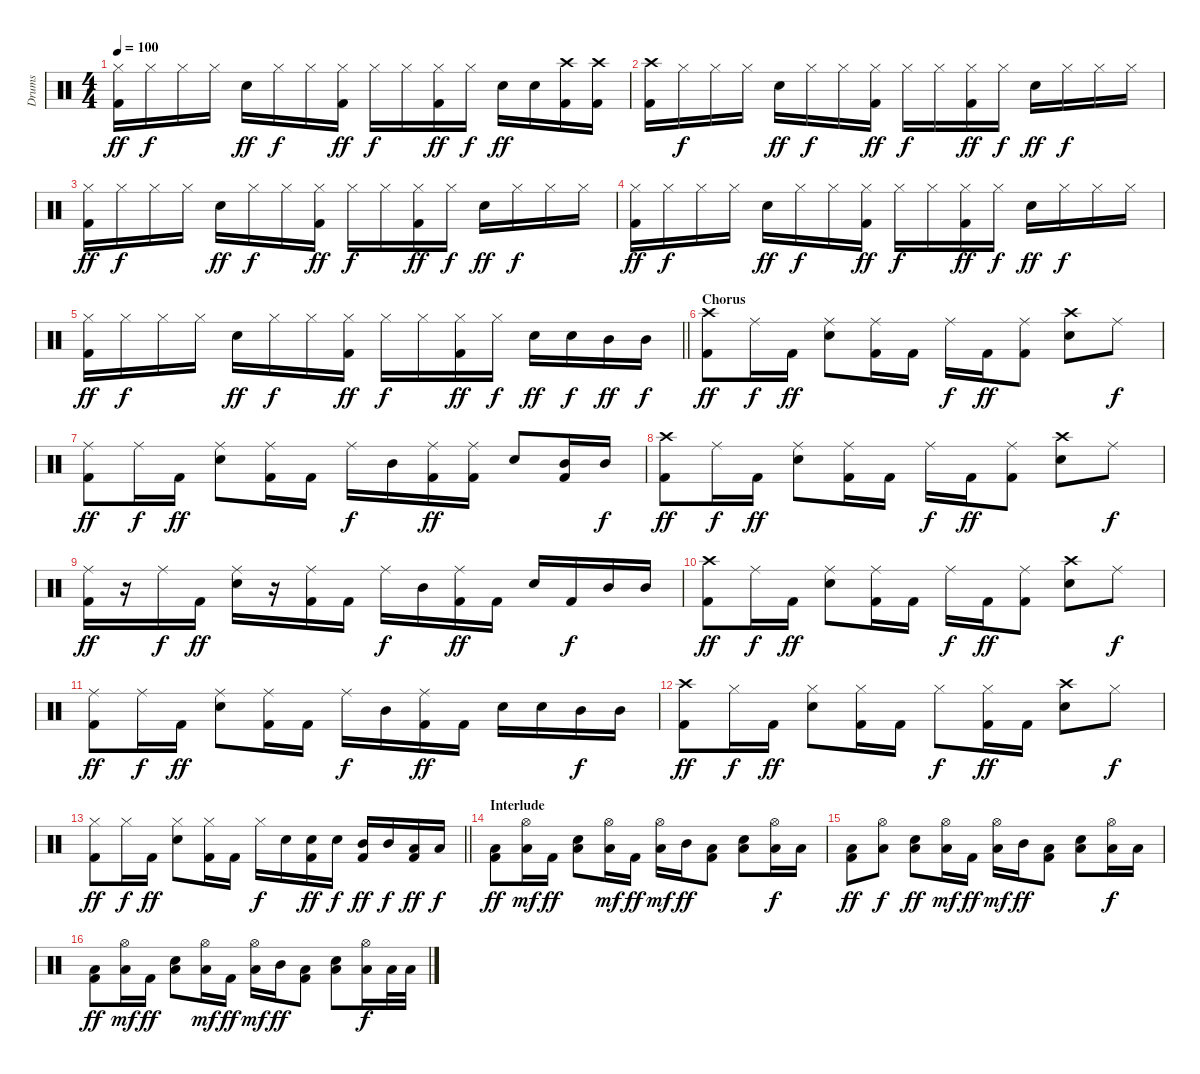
\track ("Drums" "Drums") {instrument percussion}
\staff {score}
\articulation defaults
\ts (4 4)
\tempo 100
\clef neutral
\ks c
("Hi-Hat (closed)" "Kick (hit) 2").16{dy ff} "Hi-Hat (closed)".16{dy f} "Hi-Hat (closed)".16 "Hi-Hat (closed)".16 "Snare (hit) 2".16{dy ff} "Hi-Hat (closed)".16{dy f} "Hi-Hat (closed)".16 ("Hi-Hat (closed)" "Kick (hit) 2").16{dy ff} "Hi-Hat (closed)".16{dy f} "Hi-Hat (closed)".16 ("Hi-Hat (closed)" "Kick (hit) 2").16{dy ff} "Hi-Hat (closed)".16{dy f} "Snare (hit) 2".16{dy ff} "Snare (hit) 2".16 ("Crash high (hit)" "Kick (hit) 2").16 ("Crash high (hit)" "Kick (hit) 2").16 |
("Crash high (hit)" "Kick (hit) 2").16 "Hi-Hat (closed)".16{dy f} "Hi-Hat (closed)".16 "Hi-Hat (closed)".16 "Snare (hit) 2".16{dy ff} "Hi-Hat (closed)".16{dy f} "Hi-Hat (closed)".16 ("Hi-Hat (closed)" "Kick (hit) 2").16{dy ff} "Hi-Hat (closed)".16{dy f} "Hi-Hat (closed)".16 ("Hi-Hat (closed)" "Kick (hit) 2").16{dy ff} "Hi-Hat (closed)".16{dy f} "Snare (hit) 2".16{dy ff} "Hi-Hat (closed)".16{dy f} "Hi-Hat (closed)".16 "Hi-Hat (closed)".16 |
("Hi-Hat (closed)" "Kick (hit) 2").16{dy ff} "Hi-Hat (closed)".16{dy f} "Hi-Hat (closed)".16 "Hi-Hat (closed)".16 "Snare (hit) 2".16{dy ff} "Hi-Hat (closed)".16{dy f} "Hi-Hat (closed)".16 ("Hi-Hat (closed)" "Kick (hit) 2").16{dy ff} "Hi-Hat (closed)".16{dy f} "Hi-Hat (closed)".16 ("Hi-Hat (closed)" "Kick (hit) 2").16{dy ff} "Hi-Hat (closed)".16{dy f} "Snare (hit) 2".16{dy ff} "Hi-Hat (closed)".16{dy f} "Hi-Hat (closed)".16 "Hi-Hat (closed)".16 |
("Hi-Hat (closed)" "Kick (hit) 2").16{dy ff} "Hi-Hat (closed)".16{dy f} "Hi-Hat (closed)".16 "Hi-Hat (closed)".16 "Snare (hit) 2".16{dy ff} "Hi-Hat (closed)".16{dy f} "Hi-Hat (closed)".16 ("Hi-Hat (closed)" "Kick (hit) 2").16{dy ff} "Hi-Hat (closed)".16{dy f} "Hi-Hat (closed)".16 ("Hi-Hat (closed)" "Kick (hit) 2").16{dy ff} "Hi-Hat (closed)".16{dy f} "Snare (hit) 2".16{dy ff} "Hi-Hat (closed)".16{dy f} "Hi-Hat (closed)".16 "Hi-Hat (closed)".16 |
\barLineRight lightlight
("Hi-Hat (closed)" "Kick (hit) 2").16{dy ff} "Hi-Hat (closed)".16{dy f} "Hi-Hat (closed)".16 "Hi-Hat (closed)".16 "Snare (hit) 2".16{dy ff} "Hi-Hat (closed)".16{dy f} "Hi-Hat (closed)".16 ("Hi-Hat (closed)" "Kick (hit) 2").16{dy ff} "Hi-Hat (closed)".16{dy f} "Hi-Hat (closed)".16 ("Hi-Hat (closed)" "Kick (hit) 2").16{dy ff} "Hi-Hat (closed)".16{dy f} "Snare (hit) 2".16{dy ff} "Snare (hit) 2".16{dy f} "Mid Tom (hit)".16{dy ff} "Mid Tom (hit)".16{dy f} |
\section ("" "Chorus")
("Crash high (hit)" "Kick (hit) 2").8{dy ff} "Ride (middle)".16{dy f} "Kick (hit) 2".16{dy ff} ("Ride (middle)" "Snare (hit) 2").8 ("Ride (middle)" "Kick (hit) 2").16 "Kick (hit) 2".16 "Ride (middle)".16{dy f} "Kick (hit) 2".16{dy ff} ("Ride (middle)" "Kick (hit) 2").8 ("Crash high (hit)" "Snare (hit) 2").8 "Ride (middle)".8{dy f} |
("Ride (middle)" "Kick (hit) 2").8{dy ff} "Ride (middle)".16{dy f} "Kick (hit) 2".16{dy ff} ("Ride (middle)" "Snare (hit) 2").8 ("Ride (middle)" "Kick (hit) 2").16 "Kick (hit) 2".16 "Ride (middle)".16{dy f} "Mid Tom (hit)".16 ("Ride (middle)" "Kick (hit) 2").16{dy ff} ("Ride (middle)" "Kick (hit) 2").16 "Snare (hit) 2".8 ("Mid Tom (hit)" "Kick (hit) 2").16 "Mid Tom (hit)".16{dy f} |
("Crash high (hit)" "Kick (hit) 2").8{dy ff} "Ride (middle)".16{dy f} "Kick (hit) 2".16{dy ff} ("Ride (middle)" "Snare (hit) 2").8 ("Ride (middle)" "Kick (hit) 2").16 "Kick (hit) 2".16 "Ride (middle)".16{dy f} "Kick (hit) 2".16{dy ff} ("Ride (middle)" "Kick (hit) 2").8 ("Crash high (hit)" "Snare (hit) 2").8 "Ride (middle)".8{dy f} |
("Ride (middle)" "Kick (hit) 2").16{dy ff} r.16 "Ride (middle)".16{dy f} "Kick (hit) 2".16{dy ff} ("Ride (middle)" "Snare (hit) 2").16 r.16 ("Ride (middle)" "Kick (hit) 2").16 "Kick (hit) 2".16 "Ride (middle)".16{dy f} "Mid Tom (hit)".16 ("Ride (middle)" "Kick (hit) 2").16{dy ff} "Kick (hit) 2".16 "Snare (hit) 2".16 "Kick (hit) 2".16{dy f} "Mid Tom (hit)".16 "Mid Tom (hit)".16 |
("Crash high (hit)" "Kick (hit) 2").8{dy ff} "Ride (middle)".16{dy f} "Kick (hit) 2".16{dy ff} ("Ride (middle)" "Snare (hit) 2").8 ("Ride (middle)" "Kick (hit) 2").16 "Kick (hit) 2".16 "Ride (middle)".16{dy f} "Kick (hit) 2".16{dy ff} ("Ride (middle)" "Kick (hit) 2").8 ("Crash high (hit)" "Snare (hit) 2").8 "Ride (middle)".8{dy f} |
("Ride (middle)" "Kick (hit) 2").8{dy ff} "Ride (middle)".16{dy f} "Kick (hit) 2".16{dy ff} ("Ride (middle)" "Snare (hit) 2").8 ("Ride (middle)" "Kick (hit) 2").16 "Kick (hit) 2".16 "Ride (middle)".16{dy f} "Mid Tom (hit)".16 ("Ride (middle)" "Kick (hit) 2").16{dy ff} "Kick (hit) 2".16 "Snare (hit) 2".16 "Snare (hit) 2".16 "Mid Tom (hit)".16{dy f} "Mid Tom (hit)".16 |
("Crash high (hit)" "Kick (hit) 2").8{dy ff} "Hi-Hat (closed)".16{dy f} "Kick (hit) 2".16{dy ff} ("Hi-Hat (closed)" "Snare (hit) 2").8 ("Hi-Hat (closed)" "Kick (hit) 2").16 "Kick (hit) 2".16 "Hi-Hat (closed)".8{dy f} ("Hi-Hat (closed)" "Kick (hit) 2").16{dy ff} "Kick (hit) 2".16 ("Crash high (hit)" "Snare (hit) 2").8 "Hi-Hat (closed)".8{dy f} |
\barLineRight lightlight
("Hi-Hat (closed)" "Kick (hit) 2").8{dy ff} "Hi-Hat (closed)".16{dy f} "Kick (hit) 2".16{dy ff} ("Hi-Hat (closed)" "Snare (hit) 2").8 ("Hi-Hat (closed)" "Kick (hit) 2").16 "Kick (hit) 2".16 "Hi-Hat (closed)".16{dy f} "Snare (hit) 2".16 ("Snare (hit) 2" "Kick (hit) 2").16{dy ff} "Snare (hit) 2".16{dy f} ("Mid Tom (hit)" "Kick (hit) 2").16{dy ff} "Mid Tom (hit)".16{dy f} ("Low Floor Tom (hit)" "Kick (hit) 2").16{dy ff} "Low Floor Tom (hit)".16{dy f} |
\section ("" "Interlude")
("Low Tom (hit)" "Kick (hit) 2").8{dy ff} ("Hi-Hat (open)" "Low Tom (hit)").16{dy mf} "Kick (hit) 2".16{dy ff} ("Low Tom (hit)" "Snare (hit) 2").8 ("Hi-Hat (open)" "Low Tom (hit)").16{dy mf} "Kick (hit) 2".16{dy ff} ("Hi-Hat (open)" "Low Tom (hit)").16{dy mf} "Mid Tom (hit)".16{dy ff} ("Low Tom (hit)" "Kick (hit) 2").8 ("Low Tom (hit)" "Snare (hit) 2").8 ("Hi-Hat (open)" "Low Tom (hit)").16{dy f} "Low Tom (hit)".16 |
("Low Tom (hit)" "Kick (hit) 2").8{dy ff} ("Hi-Hat (open)" "Low Tom (hit)").8{dy f} ("Low Tom (hit)" "Snare (hit) 2").8{dy ff} ("Hi-Hat (open)" "Low Tom (hit)").16{dy mf} "Kick (hit) 2".16{dy ff} ("Hi-Hat (open)" "Low Tom (hit)").16{dy mf} "Mid Tom (hit)".16{dy ff} ("Low Tom (hit)" "Kick (hit) 2").8 ("Low Tom (hit)" "Snare (hit) 2").8 ("Hi-Hat (open)" "Low Tom (hit)").16{dy f} "Low Tom (hit)".16 |
("Low Tom (hit)" "Kick (hit) 2").8{dy ff} ("Hi-Hat (open)" "Low Tom (hit)").16{dy mf} "Kick (hit) 2".16{dy ff} ("Low Tom (hit)" "Snare (hit) 2").8 ("Hi-Hat (open)" "Low Tom (hit)").16{dy mf} "Kick (hit) 2".16{dy ff} ("Hi-Hat (open)" "Low Tom (hit)").16{dy mf} "Mid Tom (hit)".16{dy ff} ("Low Tom (hit)" "Kick (hit) 2").8 ("Low Tom (hit)" "Snare (hit) 2").8 ("Hi-Hat (open)" "Low Tom (hit)").16{dy f} "Low Tom (hit)".32 "Low Tom (hit)".32
